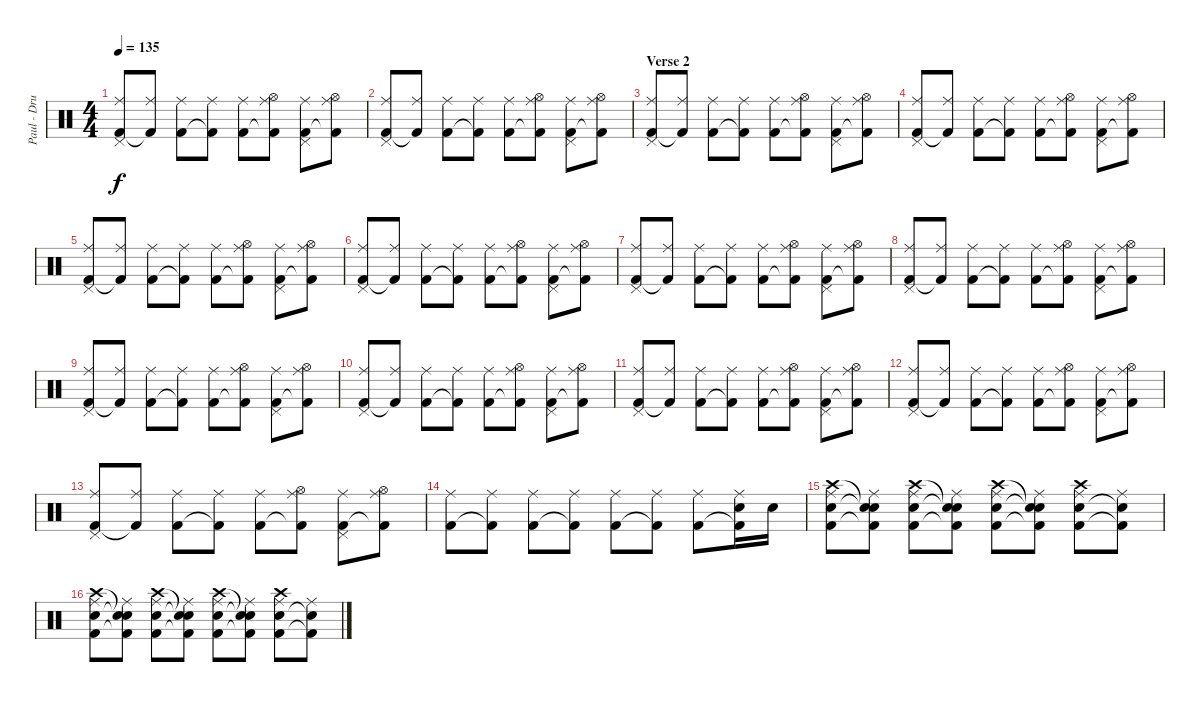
\track ("Paul - Drums" "Paul - Dru") {instrument percussion}
\staff {score}
\articulation defaults
\ts (4 4)
\tempo 135
\clef neutral
\ks c
("Kick (hit) 2" "Ride (middle)" "Pedal Hi-Hat (hit)").8{dy f} ("Kick (hit) 2"{t} "Ride (middle)").8 ("Kick (hit) 2" "Ride (middle)").8 ("Kick (hit) 2"{t} "Ride (middle)").8 ("Kick (hit) 2" "Ride (middle)").8 ("Kick (hit) 2"{t} "Ride (middle)" "Hi-Hat (open)").8 ("Kick (hit) 2" "Ride (middle)" "Pedal Hi-Hat (hit)").8 ("Kick (hit) 2"{t} "Ride (middle)" "Hi-Hat (open)").8 |
("Kick (hit) 2" "Ride (middle)" "Pedal Hi-Hat (hit)").8 ("Kick (hit) 2"{t} "Ride (middle)").8 ("Kick (hit) 2" "Ride (middle)").8 ("Kick (hit) 2"{t} "Ride (middle)").8 ("Kick (hit) 2" "Ride (middle)").8 ("Kick (hit) 2"{t} "Ride (middle)" "Hi-Hat (open)").8 ("Kick (hit) 2" "Ride (middle)" "Pedal Hi-Hat (hit)").8 ("Kick (hit) 2"{t} "Ride (middle)" "Hi-Hat (open)").8 |
\section ("" "Verse 2")
("Kick (hit) 2" "Ride (middle)" "Pedal Hi-Hat (hit)").8 ("Kick (hit) 2"{t} "Ride (middle)").8 ("Kick (hit) 2" "Ride (middle)").8 ("Kick (hit) 2"{t} "Ride (middle)").8 ("Kick (hit) 2" "Ride (middle)").8 ("Kick (hit) 2"{t} "Ride (middle)" "Hi-Hat (open)").8 ("Kick (hit) 2" "Ride (middle)" "Pedal Hi-Hat (hit)").8 ("Kick (hit) 2"{t} "Ride (middle)" "Hi-Hat (open)").8 |
("Kick (hit) 2" "Ride (middle)" "Pedal Hi-Hat (hit)").8 ("Kick (hit) 2"{t} "Ride (middle)").8 ("Kick (hit) 2" "Ride (middle)").8 ("Kick (hit) 2"{t} "Ride (middle)").8 ("Kick (hit) 2" "Ride (middle)").8 ("Kick (hit) 2"{t} "Ride (middle)" "Hi-Hat (open)").8 ("Kick (hit) 2" "Ride (middle)" "Pedal Hi-Hat (hit)").8 ("Kick (hit) 2"{t} "Ride (middle)" "Hi-Hat (open)").8 |
("Kick (hit) 2" "Ride (middle)" "Pedal Hi-Hat (hit)").8 ("Kick (hit) 2"{t} "Ride (middle)").8 ("Kick (hit) 2" "Ride (middle)").8 ("Kick (hit) 2"{t} "Ride (middle)").8 ("Kick (hit) 2" "Ride (middle)").8 ("Kick (hit) 2"{t} "Ride (middle)" "Hi-Hat (open)").8 ("Kick (hit) 2" "Ride (middle)" "Pedal Hi-Hat (hit)").8 ("Kick (hit) 2"{t} "Ride (middle)" "Hi-Hat (open)").8 |
("Kick (hit) 2" "Ride (middle)" "Pedal Hi-Hat (hit)").8 ("Kick (hit) 2"{t} "Ride (middle)").8 ("Kick (hit) 2" "Ride (middle)").8 ("Kick (hit) 2"{t} "Ride (middle)").8 ("Kick (hit) 2" "Ride (middle)").8 ("Kick (hit) 2"{t} "Ride (middle)" "Hi-Hat (open)").8 ("Kick (hit) 2" "Ride (middle)" "Pedal Hi-Hat (hit)").8 ("Kick (hit) 2"{t} "Ride (middle)" "Hi-Hat (open)").8 |
("Kick (hit) 2" "Ride (middle)" "Pedal Hi-Hat (hit)").8 ("Kick (hit) 2"{t} "Ride (middle)").8 ("Kick (hit) 2" "Ride (middle)").8 ("Kick (hit) 2"{t} "Ride (middle)").8 ("Kick (hit) 2" "Ride (middle)").8 ("Kick (hit) 2"{t} "Ride (middle)" "Hi-Hat (open)").8 ("Kick (hit) 2" "Ride (middle)" "Pedal Hi-Hat (hit)").8 ("Kick (hit) 2"{t} "Ride (middle)" "Hi-Hat (open)").8 |
("Kick (hit) 2" "Ride (middle)" "Pedal Hi-Hat (hit)").8 ("Kick (hit) 2"{t} "Ride (middle)").8 ("Kick (hit) 2" "Ride (middle)").8 ("Kick (hit) 2"{t} "Ride (middle)").8 ("Kick (hit) 2" "Ride (middle)").8 ("Kick (hit) 2"{t} "Ride (middle)" "Hi-Hat (open)").8 ("Kick (hit) 2" "Ride (middle)" "Pedal Hi-Hat (hit)").8 ("Kick (hit) 2"{t} "Ride (middle)" "Hi-Hat (open)").8 |
("Kick (hit) 2" "Ride (middle)" "Pedal Hi-Hat (hit)").8 ("Kick (hit) 2"{t} "Ride (middle)").8 ("Kick (hit) 2" "Ride (middle)").8 ("Kick (hit) 2"{t} "Ride (middle)").8 ("Kick (hit) 2" "Ride (middle)").8 ("Kick (hit) 2"{t} "Ride (middle)" "Hi-Hat (open)").8 ("Kick (hit) 2" "Ride (middle)" "Pedal Hi-Hat (hit)").8 ("Kick (hit) 2"{t} "Ride (middle)" "Hi-Hat (open)").8 |
("Kick (hit) 2" "Ride (middle)" "Pedal Hi-Hat (hit)").8 ("Kick (hit) 2"{t} "Ride (middle)").8 ("Kick (hit) 2" "Ride (middle)").8 ("Kick (hit) 2"{t} "Ride (middle)").8 ("Kick (hit) 2" "Ride (middle)").8 ("Kick (hit) 2"{t} "Ride (middle)" "Hi-Hat (open)").8 ("Kick (hit) 2" "Ride (middle)" "Pedal Hi-Hat (hit)").8 ("Kick (hit) 2"{t} "Ride (middle)" "Hi-Hat (open)").8 |
("Kick (hit) 2" "Ride (middle)" "Pedal Hi-Hat (hit)").8 ("Kick (hit) 2"{t} "Ride (middle)").8 ("Kick (hit) 2" "Ride (middle)").8 ("Kick (hit) 2"{t} "Ride (middle)").8 ("Kick (hit) 2" "Ride (middle)").8 ("Kick (hit) 2"{t} "Ride (middle)" "Hi-Hat (open)").8 ("Kick (hit) 2" "Ride (middle)" "Pedal Hi-Hat (hit)").8 ("Kick (hit) 2"{t} "Ride (middle)" "Hi-Hat (open)").8 |
("Kick (hit) 2" "Ride (middle)" "Pedal Hi-Hat (hit)").8 ("Kick (hit) 2"{t} "Ride (middle)").8 ("Kick (hit) 2" "Ride (middle)").8 ("Kick (hit) 2"{t} "Ride (middle)").8 ("Kick (hit) 2" "Ride (middle)").8 ("Kick (hit) 2"{t} "Ride (middle)" "Hi-Hat (open)").8 ("Kick (hit) 2" "Ride (middle)" "Pedal Hi-Hat (hit)").8 ("Kick (hit) 2"{t} "Ride (middle)" "Hi-Hat (open)").8 |
("Kick (hit) 2" "Ride (middle)" "Pedal Hi-Hat (hit)").8 ("Kick (hit) 2"{t} "Ride (middle)").8 ("Kick (hit) 2" "Ride (middle)").8 ("Kick (hit) 2"{t} "Ride (middle)").8 ("Kick (hit) 2" "Ride (middle)").8 ("Kick (hit) 2"{t} "Ride (middle)" "Hi-Hat (open)").8 ("Kick (hit) 2" "Ride (middle)" "Pedal Hi-Hat (hit)").8 ("Kick (hit) 2"{t} "Ride (middle)" "Hi-Hat (open)").8 |
("Kick (hit) 2" "Ride (middle)").8 ("Kick (hit) 2"{t} "Ride (middle)").8 ("Kick (hit) 2" "Ride (middle)").8 ("Kick (hit) 2"{t} "Ride (middle)").8 ("Kick (hit) 2" "Ride (middle)").8 ("Kick (hit) 2"{t} "Ride (middle)").8 ("Kick (hit) 2" "Ride (middle)").8 ("Kick (hit) 2"{t} "Ride (middle)" "Snare (hit) 2").16 "Snare (hit) 2".16 |
("Kick (hit) 2" "Snare (hit) 2" "Crash high (hit)" "Ride (middle)").8 ("Kick (hit) 2"{t} "Snare (hit) 2"{t} "Snare (hit)"{t} "Ride (middle)").8 ("Kick (hit) 2" "Snare (hit) 2" "Crash high (hit)" "Ride (middle)").8 ("Kick (hit) 2"{t} "Snare (hit) 2"{t} "Snare (hit)"{t} "Ride (middle)").8 ("Kick (hit) 2" "Snare (hit) 2" "Crash high (hit)" "Ride (middle)").8 ("Kick (hit) 2"{t} "Snare (hit) 2"{t} "Snare (hit)"{t} "Ride (middle)").8 ("Kick (hit) 2" "Snare (hit) 2" "Crash high (hit)" "Ride (middle)").8 ("Kick (hit) 2"{t} "Snare (hit) 2"{t} "Ride (middle)").8 |
("Kick (hit) 2" "Snare (hit) 2" "Crash high (hit)" "Ride (middle)").8 ("Kick (hit) 2"{t} "Snare (hit) 2"{t} "Snare (hit)"{t} "Ride (middle)").8 ("Kick (hit) 2" "Snare (hit) 2" "Crash high (hit)" "Ride (middle)").8 ("Kick (hit) 2"{t} "Snare (hit) 2"{t} "Snare (hit)"{t} "Ride (middle)").8 ("Kick (hit) 2" "Snare (hit) 2" "Crash high (hit)" "Ride (middle)").8 ("Kick (hit) 2"{t} "Snare (hit) 2"{t} "Snare (hit)"{t} "Ride (middle)").8 ("Kick (hit) 2" "Snare (hit) 2" "Crash high (hit)" "Ride (middle)").8 ("Kick (hit) 2"{t} "Snare (hit) 2"{t} "Ride (middle)").8
